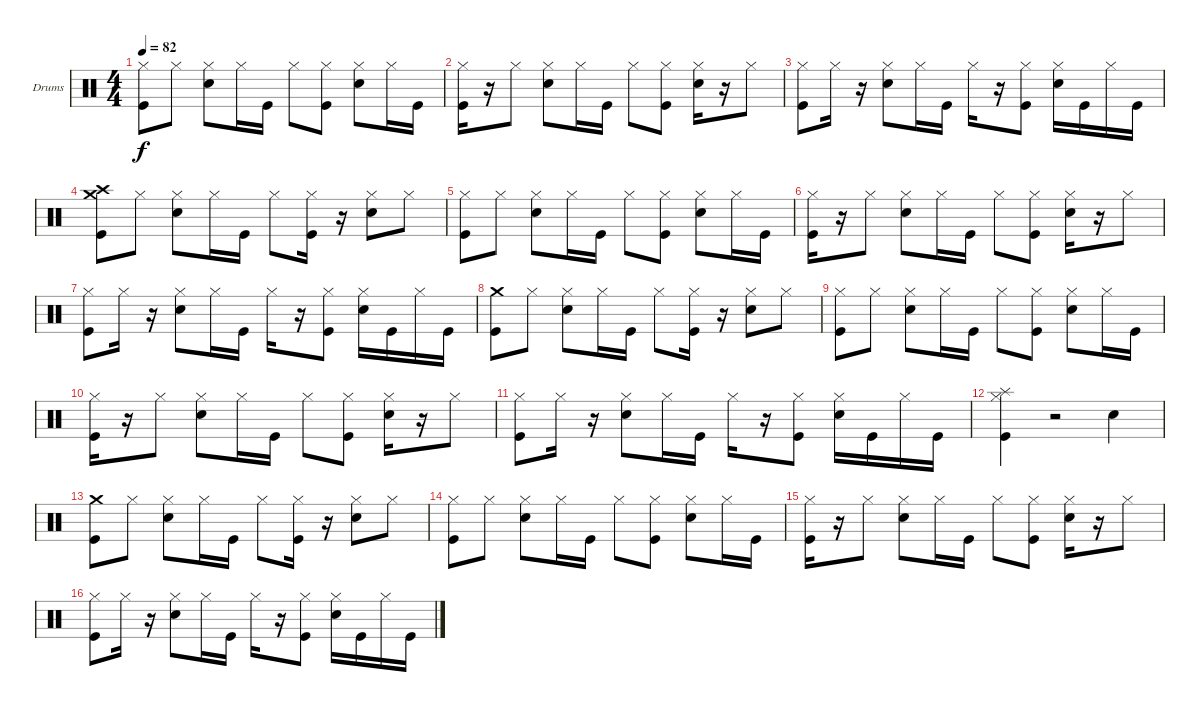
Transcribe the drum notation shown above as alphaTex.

\bracketExtendMode groupsimilarinstruments
\firstSystemTrackNameOrientation horizontal
\otherSystemsTrackNameOrientation horizontal
\track ("Drumkit" "Drums") {instrument percussion}
\staff {score}
\articulation defaults
\ts (4 4)
\tempo 82
\clef neutral
\ks c
("Kick (hit)" "Hi-Hat (closed)").8{dy f} "Hi-Hat (closed)".8 ("Hi-Hat (closed)" "Snare (hit) 2").8 "Hi-Hat (closed)".16 "Kick (hit)".16 "Hi-Hat (closed)".8 ("Kick (hit)" "Hi-Hat (closed)").8 ("Snare (hit) 2" "Hi-Hat (closed)").8 "Hi-Hat (closed)".16 "Kick (hit)".16 |
("Kick (hit)" "Hi-Hat (closed)").16 r.16 "Hi-Hat (closed)".8 ("Hi-Hat (closed)" "Snare (hit) 2").8 "Hi-Hat (closed)".16 "Kick (hit)".16 "Hi-Hat (closed)".8 ("Kick (hit)" "Hi-Hat (closed)").8 ("Snare (hit) 2" "Hi-Hat (closed)").16 r.16 "Hi-Hat (closed)".8 |
("Kick (hit)" "Hi-Hat (closed)").8 "Hi-Hat (closed)".16 r.16 ("Hi-Hat (closed)" "Snare (hit) 2").8 "Hi-Hat (closed)".16 "Kick (hit)".16 "Hi-Hat (closed)".16 r.16 ("Kick (hit)" "Hi-Hat (closed)").8 ("Snare (hit) 2" "Hi-Hat (closed)").16 "Kick (hit)".16 "Hi-Hat (closed)".16 "Kick (hit)".16 |
("Crash high (hit)" "Kick (hit)" "Crash medium (hit)").8 "Hi-Hat (closed)".8 ("Hi-Hat (closed)" "Snare (hit) 2").8 "Hi-Hat (closed)".16 "Kick (hit)".16 "Hi-Hat (closed)".8 ("Kick (hit)" "Hi-Hat (closed)").16 r.16 ("Snare (hit) 2" "Hi-Hat (closed)").8 "Hi-Hat (closed)".8 |
("Kick (hit)" "Hi-Hat (closed)").8 "Hi-Hat (closed)".8 ("Hi-Hat (closed)" "Snare (hit) 2").8 "Hi-Hat (closed)".16 "Kick (hit)".16 "Hi-Hat (closed)".8 ("Kick (hit)" "Hi-Hat (closed)").8 ("Snare (hit) 2" "Hi-Hat (closed)").8 "Hi-Hat (closed)".16 "Kick (hit)".16 |
("Kick (hit)" "Hi-Hat (closed)").16 r.16 "Hi-Hat (closed)".8 ("Hi-Hat (closed)" "Snare (hit) 2").8 "Hi-Hat (closed)".16 "Kick (hit)".16 "Hi-Hat (closed)".8 ("Kick (hit)" "Hi-Hat (closed)").8 ("Snare (hit) 2" "Hi-Hat (closed)").16 r.16 "Hi-Hat (closed)".8 |
("Kick (hit)" "Hi-Hat (closed)").8 "Hi-Hat (closed)".16 r.16 ("Hi-Hat (closed)" "Snare (hit) 2").8 "Hi-Hat (closed)".16 "Kick (hit)".16 "Hi-Hat (closed)".16 r.16 ("Kick (hit)" "Hi-Hat (closed)").8 ("Snare (hit) 2" "Hi-Hat (closed)").16 "Kick (hit)".16 "Hi-Hat (closed)".16 "Kick (hit)".16 |
("Kick (hit)" "Crash medium (hit)").8 "Hi-Hat (closed)".8 ("Hi-Hat (closed)" "Snare (hit) 2").8 "Hi-Hat (closed)".16 "Kick (hit)".16 "Hi-Hat (closed)".8 ("Kick (hit)" "Hi-Hat (closed)").16 r.16 ("Snare (hit) 2" "Hi-Hat (closed)").8 "Hi-Hat (closed)".8 |
("Kick (hit)" "Hi-Hat (closed)").8 "Hi-Hat (closed)".8 ("Hi-Hat (closed)" "Snare (hit) 2").8 "Hi-Hat (closed)".16 "Kick (hit)".16 "Hi-Hat (closed)".8 ("Kick (hit)" "Hi-Hat (closed)").8 ("Snare (hit) 2" "Hi-Hat (closed)").8 "Hi-Hat (closed)".16 "Kick (hit)".16 |
("Kick (hit)" "Hi-Hat (closed)").16 r.16 "Hi-Hat (closed)".8 ("Hi-Hat (closed)" "Snare (hit) 2").8 "Hi-Hat (closed)".16 "Kick (hit)".16 "Hi-Hat (closed)".8 ("Kick (hit)" "Hi-Hat (closed)").8 ("Snare (hit) 2" "Hi-Hat (closed)").16 r.16 "Hi-Hat (closed)".8 |
("Kick (hit)" "Hi-Hat (closed)").8 "Hi-Hat (closed)".16 r.16 ("Hi-Hat (closed)" "Snare (hit) 2").8 "Hi-Hat (closed)".16 "Kick (hit)".16 "Hi-Hat (closed)".16 r.16 ("Kick (hit)" "Hi-Hat (closed)").8 ("Snare (hit) 2" "Hi-Hat (closed)").16 "Kick (hit)".16 "Hi-Hat (closed)".16 "Kick (hit)".16 |
("Kick (hit)" "Splash (hit)" "Hi-Hat (closed)").4 r.2 "Snare (hit) 2".4 |
("Kick (hit)" "Crash medium (hit)").8 "Hi-Hat (closed)".8 ("Hi-Hat (closed)" "Snare (hit) 2").8 "Hi-Hat (closed)".16 "Kick (hit)".16 "Hi-Hat (closed)".8 ("Kick (hit)" "Hi-Hat (closed)").16 r.16 ("Snare (hit) 2" "Hi-Hat (closed)").8 "Hi-Hat (closed)".8 |
("Kick (hit)" "Hi-Hat (closed)").8 "Hi-Hat (closed)".8 ("Hi-Hat (closed)" "Snare (hit) 2").8 "Hi-Hat (closed)".16 "Kick (hit)".16 "Hi-Hat (closed)".8 ("Kick (hit)" "Hi-Hat (closed)").8 ("Snare (hit) 2" "Hi-Hat (closed)").8 "Hi-Hat (closed)".16 "Kick (hit)".16 |
("Kick (hit)" "Hi-Hat (closed)").16 r.16 "Hi-Hat (closed)".8 ("Hi-Hat (closed)" "Snare (hit) 2").8 "Hi-Hat (closed)".16 "Kick (hit)".16 "Hi-Hat (closed)".8 ("Kick (hit)" "Hi-Hat (closed)").8 ("Snare (hit) 2" "Hi-Hat (closed)").16 r.16 "Hi-Hat (closed)".8 |
("Kick (hit)" "Hi-Hat (closed)").8 "Hi-Hat (closed)".16 r.16 ("Hi-Hat (closed)" "Snare (hit) 2").8 "Hi-Hat (closed)".16 "Kick (hit)".16 "Hi-Hat (closed)".16 r.16 ("Kick (hit)" "Hi-Hat (closed)").8 ("Snare (hit) 2" "Hi-Hat (closed)").16 "Kick (hit)".16 "Hi-Hat (closed)".16 "Kick (hit)".16
